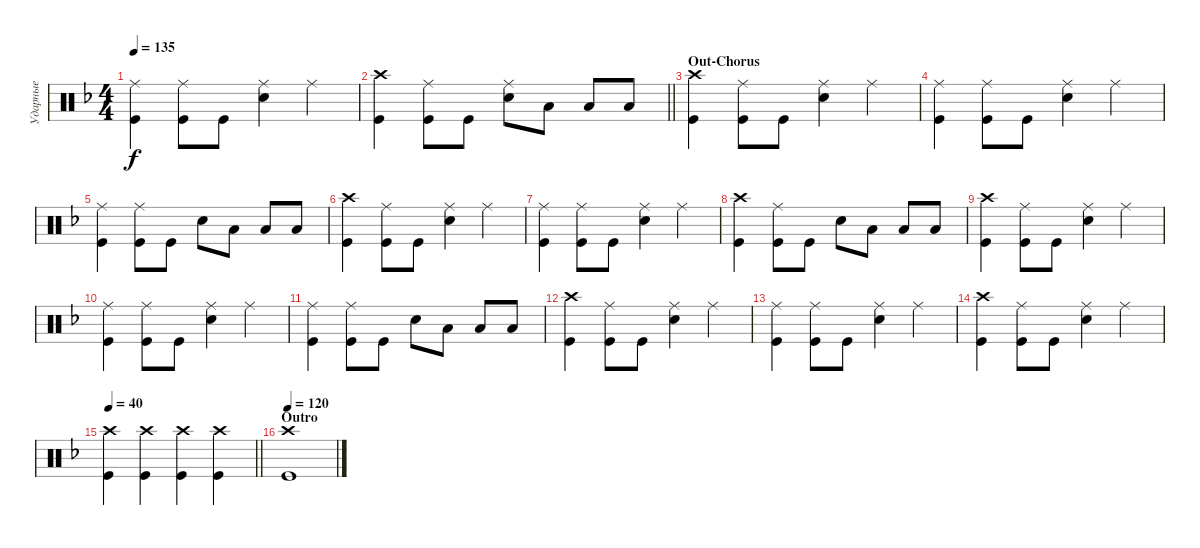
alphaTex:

\track ("Ударные" "Ударные") {instrument percussion}
\staff {score}
\articulation defaults
\ts (4 4)
\tempo 135
\clef neutral
\ks dminor
("Kick (hit)" "Ride (middle)").4{dy f} ("Kick (hit)" "Ride (middle)").8 "Kick (hit)".8 ("Snare (hit) 2" "Ride (middle)").4 "Ride (middle)".4 |
\barLineRight lightlight
("Kick (hit)" "Crash high (hit)").4 ("Kick (hit)" "Ride (middle)").8 "Kick (hit)".8 ("Snare (hit) 2" "Ride (middle)").8 "Low Tom (hit)".8 "Low Tom (hit)".8 "Low Tom (hit)".8 |
\section ("" "Out-Chorus")
("Kick (hit)" "Crash high (hit)").4 ("Kick (hit)" "Ride (middle)").8 "Kick (hit)".8 ("Snare (hit) 2" "Ride (middle)").4 "Ride (middle)".4 |
("Kick (hit)" "Ride (middle)").4 ("Kick (hit)" "Ride (middle)").8 "Kick (hit)".8 ("Snare (hit) 2" "Ride (middle)").4 "Ride (middle)".4 |
("Kick (hit)" "Ride (middle)").4 ("Kick (hit)" "Ride (middle)").8 "Kick (hit)".8 "Snare (hit) 2".8 "Low Tom (hit)".8 "Low Tom (hit)".8 "Low Tom (hit)".8 |
("Kick (hit)" "Crash high (hit)").4 ("Kick (hit)" "Ride (middle)").8 "Kick (hit)".8 ("Snare (hit) 2" "Ride (middle)").4 "Ride (middle)".4 |
("Kick (hit)" "Ride (middle)").4 ("Kick (hit)" "Ride (middle)").8 "Kick (hit)".8 ("Snare (hit) 2" "Ride (middle)").4 "Ride (middle)".4 |
("Kick (hit)" "Crash high (hit)").4 ("Kick (hit)" "Ride (middle)").8 "Kick (hit)".8 "Snare (hit) 2".8 "Low Tom (hit)".8 "Low Tom (hit)".8 "Low Tom (hit)".8 |
("Kick (hit)" "Crash high (hit)").4 ("Kick (hit)" "Ride (middle)").8 "Kick (hit)".8 ("Snare (hit) 2" "Ride (middle)").4 "Ride (middle)".4 |
("Kick (hit)" "Ride (middle)").4 ("Kick (hit)" "Ride (middle)").8 "Kick (hit)".8 ("Snare (hit) 2" "Ride (middle)").4 "Ride (middle)".4 |
("Kick (hit)" "Ride (middle)").4 ("Kick (hit)" "Ride (middle)").8 "Kick (hit)".8 "Snare (hit) 2".8 "Low Tom (hit)".8 "Low Tom (hit)".8 "Low Tom (hit)".8 |
("Kick (hit)" "Crash high (hit)").4 ("Kick (hit)" "Ride (middle)").8 "Kick (hit)".8 ("Snare (hit) 2" "Ride (middle)").4 "Ride (middle)".4 |
("Kick (hit)" "Ride (middle)").4 ("Kick (hit)" "Ride (middle)").8 "Kick (hit)".8 ("Snare (hit) 2" "Ride (middle)").4 "Ride (middle)".4 |
("Kick (hit)" "Crash high (hit)").4 ("Kick (hit)" "Ride (middle)").8 "Kick (hit)".8 ("Snare (hit) 2" "Ride (middle)").4 "Ride (middle)".4 |
\tempo 40
\barLineRight lightlight
("Kick (hit)" "Crash high (hit)").4 ("Kick (hit)" "Crash high (hit)").4 ("Kick (hit)" "Crash high (hit)").4 ("Kick (hit)" "Crash high (hit)").4 |
\section ("" "Outro")
\tempo 120
("Kick (hit)" "Crash high (hit)").1
